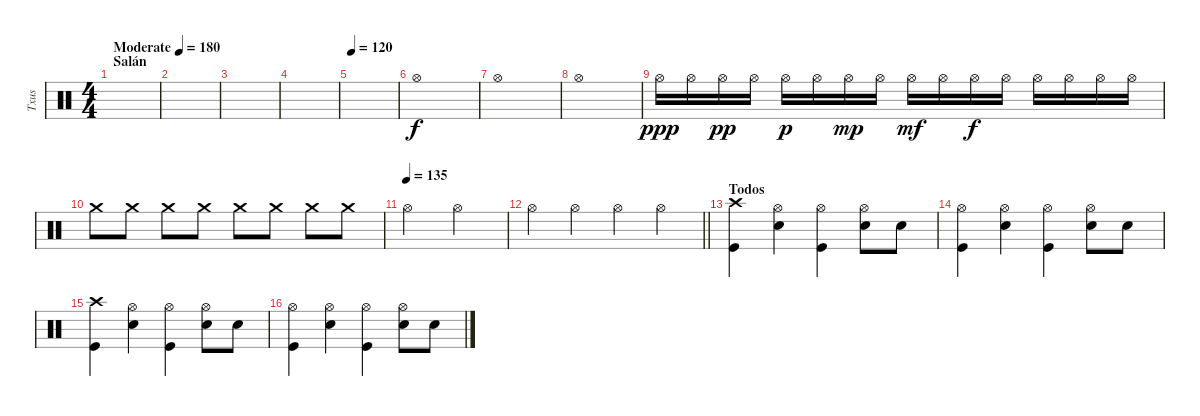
\track ("Txus" "Txus") {instrument percussion}
\staff {score}
\articulation defaults
\ts (4 4)
\section ("" "Salán")
\tempo (180 "Moderate")
\clef neutral
\ks c
|
|
|
|
\tempo 120
|
"Hi-Hat (open)".1 |
"Hi-Hat (open)".1 |
"Hi-Hat (open)".1 |
"Hi-Hat (open)".16{dy ppp} "Hi-Hat (open)".16 "Hi-Hat (open)".16{dy pp} "Hi-Hat (open)".16 "Hi-Hat (open)".16{dy p} "Hi-Hat (open)".16 "Hi-Hat (open)".16{dy mp} "Hi-Hat (open)".16 "Hi-Hat (open)".16{dy mf} "Hi-Hat (open)".16 "Hi-Hat (open)".16{dy f} "Hi-Hat (open)".16 "Hi-Hat (open)".16 "Hi-Hat (open)".16 "Hi-Hat (open)".16 "Hi-Hat (open)".16 |
"Crash medium (hit)".8 "Crash medium (hit)".8 "Crash medium (hit)".8 "Crash medium (hit)".8 "Crash medium (hit)".8 "Crash medium (hit)".8 "Crash medium (hit)".8 "Crash medium (hit)".8 |
\tempo (135)
"Hi-Hat (open)".2 "Hi-Hat (open)".2 |
\barLineRight lightlight "Hi-Hat (open)".4 "Hi-Hat (open)".4 "Hi-Hat (open)".4 "Hi-Hat (open)".4
|
\section ("" "Todos")
("Crash high (hit)" "Kick (hit)").4 ("Hi-Hat (open)" "Electric Snare (hit)").4 ("Hi-Hat (open)" "Kick (hit)").4 ("Hi-Hat (open)" "Electric Snare (hit)").8 "Electric Snare (hit)".8 |
("Hi-Hat (open)" "Kick (hit)").4 ("Hi-Hat (open)" "Electric Snare (hit)").4 ("Hi-Hat (open)" "Kick (hit)").4 ("Hi-Hat (open)" "Electric Snare (hit)").8 "Electric Snare (hit)".8 |
("Crash high (hit)" "Kick (hit)").4 ("Hi-Hat (open)" "Electric Snare (hit)").4 ("Hi-Hat (open)" "Kick (hit)").4 ("Hi-Hat (open)" "Electric Snare (hit)").8 "Electric Snare (hit)".8 |
("Hi-Hat (open)" "Kick (hit)").4 ("Hi-Hat (open)" "Electric Snare (hit)").4 ("Hi-Hat (open)" "Kick (hit)").4 ("Hi-Hat (open)" "Electric Snare (hit)").8 "Electric Snare (hit)".8
